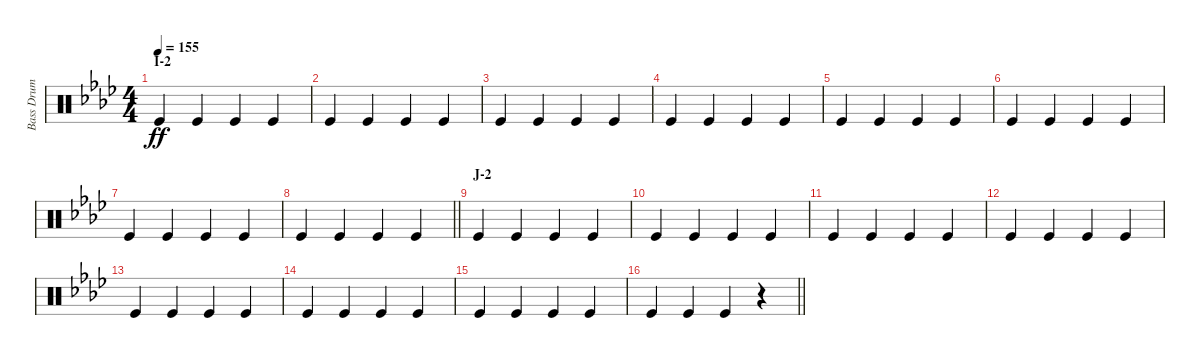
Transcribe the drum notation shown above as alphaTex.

\track ("Bass Drum" "Bass Drum") {instrument percussion}
\staff {score}
\articulation defaults
\ts (4 4)
\section ("" "I-2")
\tempo 155
\clef neutral
\ks ab "Kick (hit)".4{dy ff} "Kick (hit)".4 "Kick (hit)".4 "Kick (hit)".4
|
"Kick (hit)".4 "Kick (hit)".4 "Kick (hit)".4 "Kick (hit)".4 |
"Kick (hit)".4 "Kick (hit)".4 "Kick (hit)".4 "Kick (hit)".4 |
"Kick (hit)".4 "Kick (hit)".4 "Kick (hit)".4 "Kick (hit)".4 |
"Kick (hit)".4 "Kick (hit)".4 "Kick (hit)".4 "Kick (hit)".4 |
"Kick (hit)".4 "Kick (hit)".4 "Kick (hit)".4 "Kick (hit)".4 |
"Kick (hit)".4 "Kick (hit)".4 "Kick (hit)".4 "Kick (hit)".4 |
\barLineRight lightlight "Kick (hit)".4 "Kick (hit)".4 "Kick (hit)".4 "Kick (hit)".4
|
\section ("" "J-2")
"Kick (hit)".4 "Kick (hit)".4 "Kick (hit)".4 "Kick (hit)".4 |
"Kick (hit)".4 "Kick (hit)".4 "Kick (hit)".4 "Kick (hit)".4 |
"Kick (hit)".4 "Kick (hit)".4 "Kick (hit)".4 "Kick (hit)".4 |
"Kick (hit)".4 "Kick (hit)".4 "Kick (hit)".4 "Kick (hit)".4 |
"Kick (hit)".4 "Kick (hit)".4 "Kick (hit)".4 "Kick (hit)".4 |
"Kick (hit)".4 "Kick (hit)".4 "Kick (hit)".4 "Kick (hit)".4 |
"Kick (hit)".4 "Kick (hit)".4 "Kick (hit)".4 "Kick (hit)".4 |
\barLineRight lightlight "Kick (hit)".4 "Kick (hit)".4 "Kick (hit)".4
r.4
